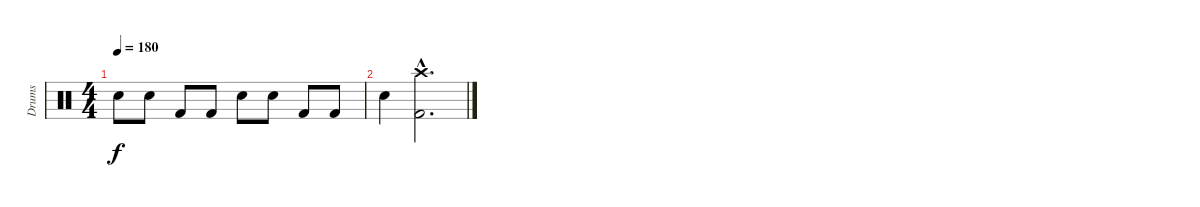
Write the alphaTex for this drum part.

\track ("Drums" "Drums") {instrument percussion}
\staff {score}
\articulation defaults
\ts (4 4)
\tempo 180
\clef neutral
\ks c "Snare (hit) 2".8{dy f} "Snare (hit) 2".8 "Kick (hit) 2".8 "Kick (hit) 2".8 "Snare (hit) 2".8 "Snare (hit) 2".8 "Kick (hit) 2".8 "Kick (hit) 2".8
|
"Snare (hit) 2".4 ("Crash high (hit)"{hac} "Kick (hit) 2"{hac}).2{d}
